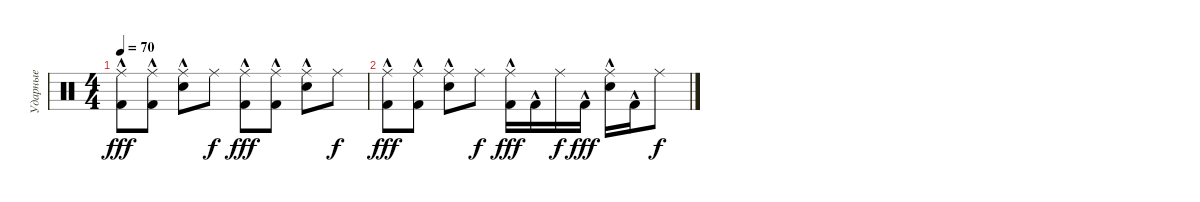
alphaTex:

\track ("Ударные" "Ударные") {instrument percussion}
\staff {score}
\articulation defaults
\ts (4 4)
\tempo 70
\clef neutral
\ks c
("Kick (hit) 2"{hac} "Ride (middle)").8{dy fff} ("Kick (hit) 2"{hac} "Ride (middle)").8 ("Ride (middle)" "Snare (hit) 2"{hac}).8 "Ride (middle)".8{dy f} ("Ride (middle)" "Kick (hit) 2"{hac}).8{dy fff} ("Ride (middle)" "Kick (hit) 2"{hac}).8 ("Snare (hit) 2"{hac} "Ride (middle)").8 "Ride (middle)".8{dy f} |
("Kick (hit) 2"{hac} "Ride (middle)").8{dy fff} ("Kick (hit) 2"{hac} "Ride (middle)").8 ("Ride (middle)" "Snare (hit) 2"{hac}).8 "Ride (middle)".8{dy f} ("Ride (middle)" "Kick (hit) 2"{hac}).16{dy fff} "Kick (hit) 2"{hac}.16 "Ride (middle)".16{dy f} "Kick (hit) 2"{hac}.16{dy fff} ("Snare (hit) 2"{hac} "Ride (middle)").16 "Kick (hit) 2"{hac}.16 "Ride (middle)".8{dy f}
